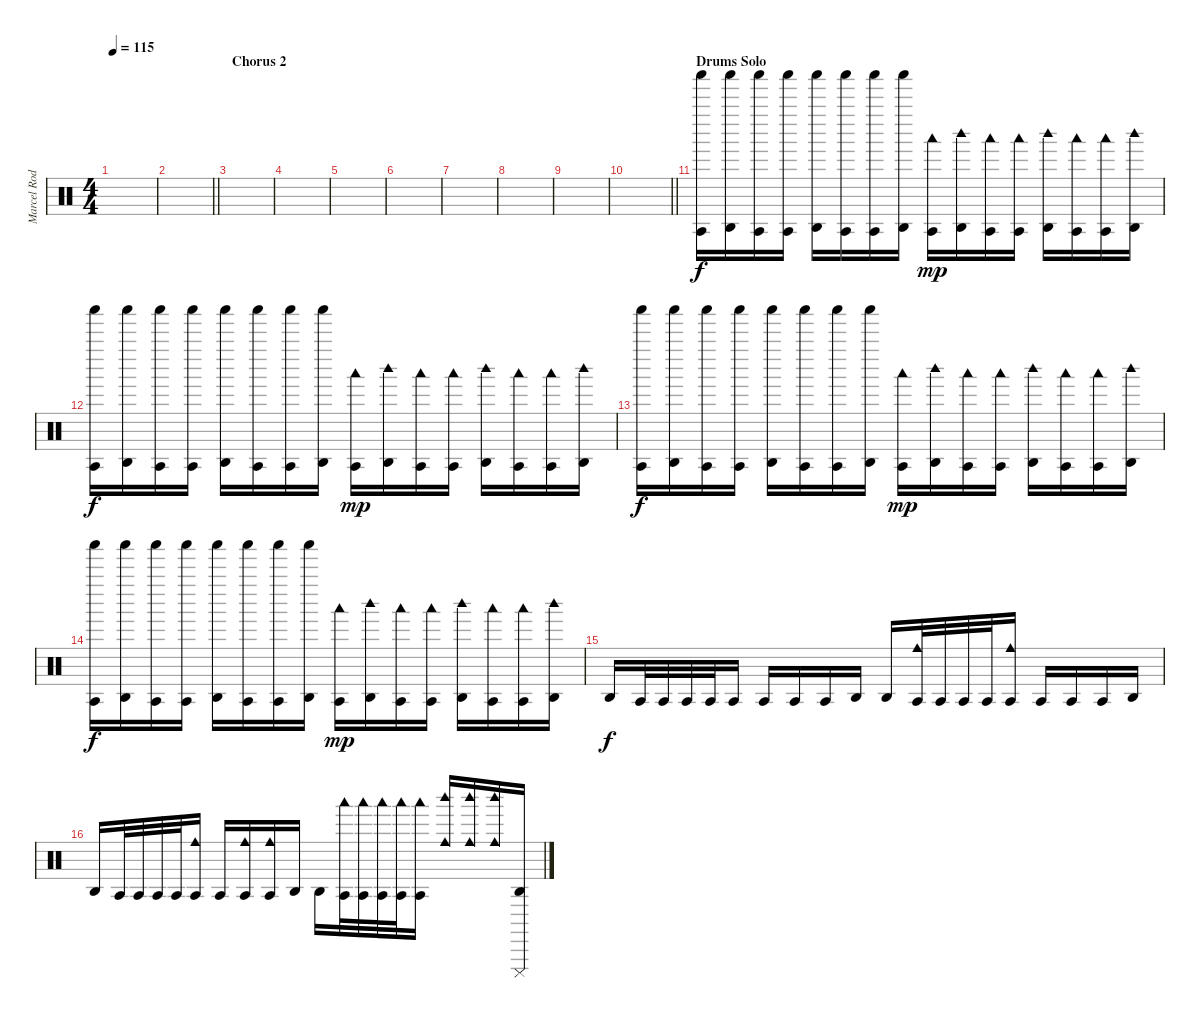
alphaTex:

\track ("Marcel Rodriguez - Bongos and Others" "Marcel Rod") {instrument percussion}
\staff {score}
\articulation defaults
\ts (4 4)
\tempo 115
\clef neutral
\ks c
|
\barLineRight lightlight
|
\section ("" "Chorus 2")
|
|
|
|
|
|
|
\barLineRight lightlight
|
\section ("" "Drums Solo")
("Agogo tow (hit)" "Shaker (hit)").16{balance 4} ("Agogo high (hit)" "Shaker (hit)").16 ("Agogo tow (hit)" "Shaker (hit)").16 ("Agogo tow (hit)" "Shaker (hit)").16 ("Agogo high (hit)" "Shaker (hit)").16 ("Agogo tow (hit)" "Shaker (hit)").16 ("Agogo tow (hit)" "Shaker (hit)").16 ("Agogo high (hit)" "Shaker (hit)").16 ("Agogo tow (hit)" "Woodblock low (hit)").16{dy mp} ("Agogo high (hit)" "Woodblock high (hit)").16 ("Agogo tow (hit)" "Woodblock low (hit)").16 ("Agogo tow (hit)" "Woodblock low (hit)").16 ("Agogo high (hit)" "Woodblock high (hit)").16 ("Agogo tow (hit)" "Woodblock low (hit)").16 ("Agogo tow (hit)" "Woodblock low (hit)").16 ("Agogo high (hit)" "Woodblock high (hit)").16 |
("Agogo tow (hit)" "Shaker (hit)").16{dy f} ("Agogo high (hit)" "Shaker (hit)").16 ("Agogo tow (hit)" "Shaker (hit)").16 ("Agogo tow (hit)" "Shaker (hit)").16 ("Agogo high (hit)" "Shaker (hit)").16 ("Agogo tow (hit)" "Shaker (hit)").16 ("Agogo tow (hit)" "Shaker (hit)").16 ("Agogo high (hit)" "Shaker (hit)").16 ("Agogo tow (hit)" "Woodblock low (hit)").16{dy mp} ("Agogo high (hit)" "Woodblock high (hit)").16 ("Agogo tow (hit)" "Woodblock low (hit)").16 ("Agogo tow (hit)" "Woodblock low (hit)").16 ("Agogo high (hit)" "Woodblock high (hit)").16 ("Agogo tow (hit)" "Woodblock low (hit)").16 ("Agogo tow (hit)" "Woodblock low (hit)").16 ("Agogo high (hit)" "Woodblock high (hit)").16 |
("Agogo tow (hit)" "Shaker (hit)").16{dy f} ("Agogo high (hit)" "Shaker (hit)").16 ("Agogo tow (hit)" "Shaker (hit)").16 ("Agogo tow (hit)" "Shaker (hit)").16 ("Agogo high (hit)" "Shaker (hit)").16 ("Agogo tow (hit)" "Shaker (hit)").16 ("Agogo tow (hit)" "Shaker (hit)").16 ("Agogo high (hit)" "Shaker (hit)").16 ("Agogo tow (hit)" "Woodblock low (hit)").16{dy mp} ("Agogo high (hit)" "Woodblock high (hit)").16 ("Agogo tow (hit)" "Woodblock low (hit)").16 ("Agogo tow (hit)" "Woodblock low (hit)").16 ("Agogo high (hit)" "Woodblock high (hit)").16 ("Agogo tow (hit)" "Woodblock low (hit)").16 ("Agogo tow (hit)" "Woodblock low (hit)").16 ("Agogo high (hit)" "Woodblock high (hit)").16 |
("Agogo tow (hit)" "Shaker (hit)").16{dy f} ("Agogo high (hit)" "Shaker (hit)").16 ("Agogo tow (hit)" "Shaker (hit)").16 ("Agogo tow (hit)" "Shaker (hit)").16 ("Agogo high (hit)" "Shaker (hit)").16 ("Agogo tow (hit)" "Shaker (hit)").16 ("Agogo tow (hit)" "Shaker (hit)").16 ("Agogo high (hit)" "Shaker (hit)").16 ("Agogo tow (hit)" "Woodblock low (hit)").16{dy mp} ("Agogo high (hit)" "Woodblock high (hit)").16 ("Agogo tow (hit)" "Woodblock low (hit)").16 ("Agogo tow (hit)" "Woodblock low (hit)").16 ("Agogo high (hit)" "Woodblock high (hit)").16 ("Agogo tow (hit)" "Woodblock low (hit)").16 ("Agogo tow (hit)" "Woodblock low (hit)").16 ("Agogo high (hit)" "Woodblock high (hit)").16 |
"Agogo high (hit)".16{dy f} "Agogo tow (hit)".32 "Agogo tow (hit)".32 "Agogo tow (hit)".32 "Agogo tow (hit)".32 "Agogo tow (hit)".16 "Agogo tow (hit)".16 "Agogo tow (hit)".16 "Agogo tow (hit)".16 "Agogo high (hit)".16 "Agogo high (hit)".16 ("Agogo tow (hit)" "Cowbell medium (hit)").32 "Agogo tow (hit)".32 "Agogo tow (hit)".32 "Agogo tow (hit)".32 ("Agogo tow (hit)" "Cowbell medium (hit)").16 "Agogo tow (hit)".16 "Agogo tow (hit)".16 "Agogo tow (hit)".16 "Agogo high (hit)".16 |
"Agogo high (hit)".16 "Agogo tow (hit)".32 "Agogo tow (hit)".32 "Agogo tow (hit)".32 "Agogo tow (hit)".32 ("Agogo tow (hit)" "Cowbell medium (hit)").16 "Agogo tow (hit)".16 ("Agogo tow (hit)" "Cowbell medium (hit)").16 ("Agogo tow (hit)" "Cowbell medium (hit)").16 "Agogo high (hit)".16 "Agogo high (hit)".16 ("Agogo tow (hit)" "Woodblock low (hit)").32 ("Agogo tow (hit)" "Woodblock low (hit)").32 ("Agogo tow (hit)" "Woodblock low (hit)").32 ("Agogo tow (hit)" "Woodblock low (hit)").32 ("Agogo tow (hit)" "Woodblock low (hit)").16 ("Cowbell medium (hit)" "Woodblock high (hit)").16 ("Cowbell medium (hit)" "Woodblock high (hit)").16 ("Cowbell medium (hit)" "Woodblock high (hit)").16 ("Agogo high (hit)" "Cuica (mute)").16
